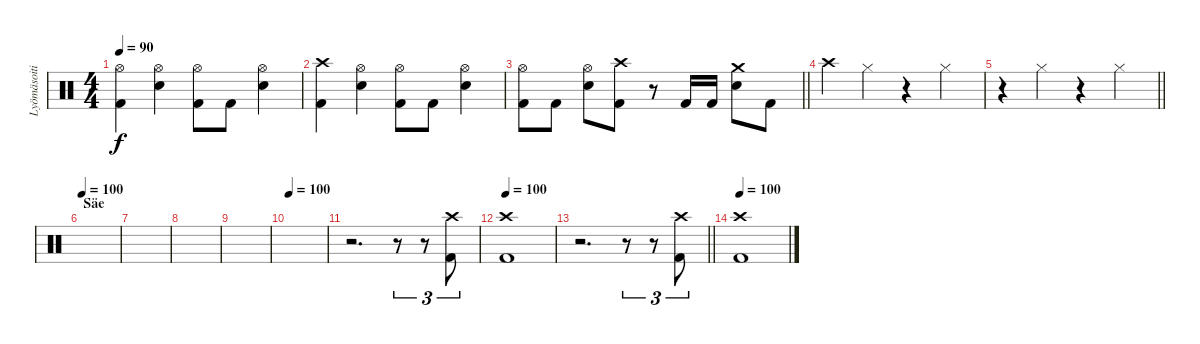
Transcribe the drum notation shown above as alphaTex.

\track ("Lyömäsoitin" "Lyömäsoiti") {instrument percussion}
\staff {score}
\articulation defaults
\ts (4 4)
\tempo 90
\clef neutral
\ks c
("Hi-Hat (open)" "Kick (hit) 2").4{dy f} ("Hi-Hat (open)" "Snare (hit) 2").4 ("Hi-Hat (open)" "Kick (hit) 2").8 "Kick (hit) 2".8 ("Hi-Hat (open)" "Snare (hit) 2").4 |
("Crash high (hit)" "Kick (hit) 2").4 ("Hi-Hat (open)" "Snare (hit) 2").4 ("Hi-Hat (open)" "Kick (hit) 2").8 "Kick (hit) 2".8 ("Hi-Hat (open)" "Snare (hit) 2").4 |
\barLineRight lightlight
("Hi-Hat (open)" "Kick (hit) 2").8 "Kick (hit) 2".8 ("Hi-Hat (open)" "Snare (hit) 2").8 ("Crash high (hit)" "Kick (hit) 2").8 r.8 "Kick (hit) 2".16 "Kick (hit) 2".16 ("Crash medium (hit)" "Snare (hit) 2").8 "Kick (hit) 2".8 |
"Crash high (hit)".4 "Hi-Hat (closed)".4 r.4 "Hi-Hat (closed)".4 |
\barLineRight lightlight
r.4 "Hi-Hat (closed)".4 r.4 "Hi-Hat (closed)".4 |
\section ("" "Säe")
\tempo 100
|
|
|
|
\tempo 100
|
r.2{d} r.8{tu (3 2)} r.8{tu (3 2)} ("Crash high (hit)" "Kick (hit) 2").8{tu (3 2)} |
\tempo 100
("Crash high (hit)" "Kick (hit) 2").1 |
\barLineRight lightlight
r.2{d} r.8{tu (3 2)} r.8{tu (3 2)} ("Crash high (hit)" "Kick (hit) 2").8{tu (3 2)} |
\tempo 100
("Crash high (hit)" "Kick (hit) 2").1
